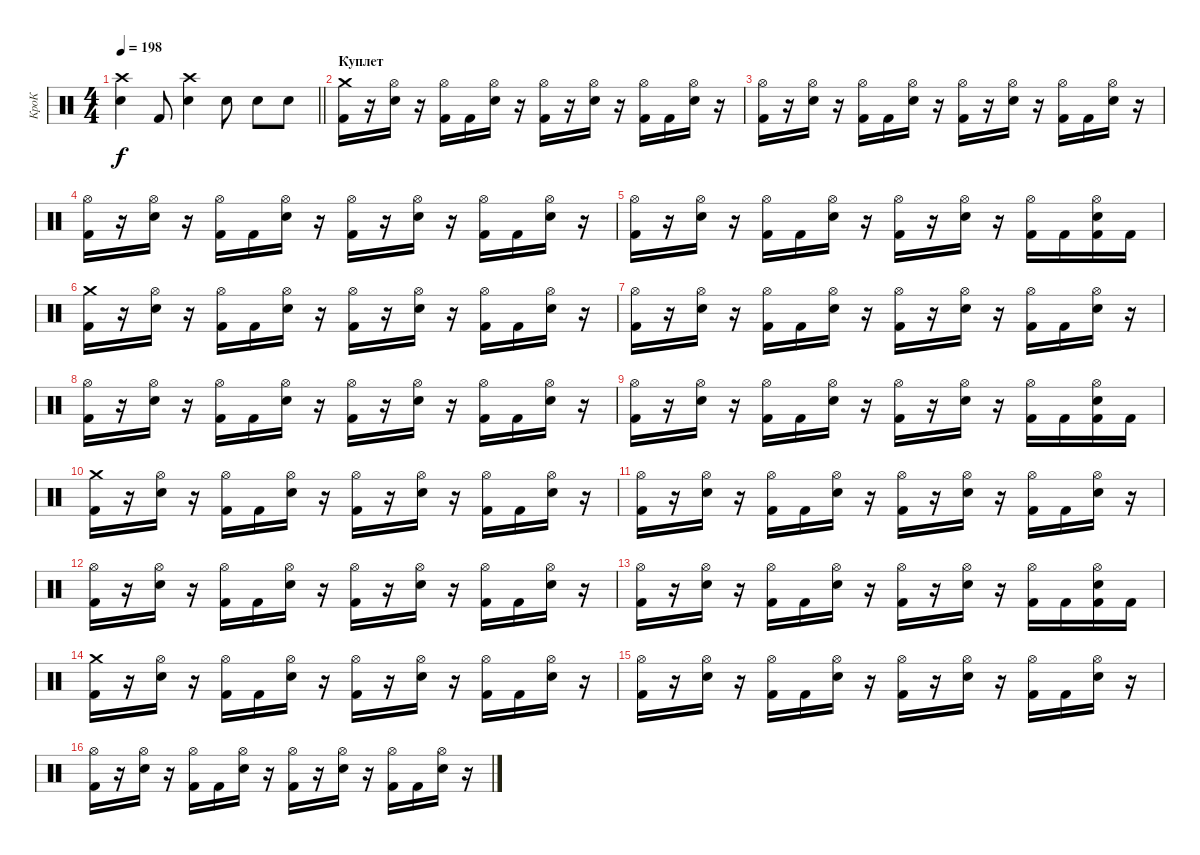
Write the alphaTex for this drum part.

\track ("КроК" "КроК") {instrument percussion}
\staff {score}
\articulation defaults
\ts (4 4)
\tempo 198
\clef neutral
\barLineRight lightlight
\ks c
("Electric Snare (hit)" "Crash high (hit)").4{dy f} "Kick (hit) 2".8 ("Electric Snare (hit)" "Crash high (hit)").4 "Electric Snare (hit)".8 "Electric Snare (hit)".8 "Electric Snare (hit)".8 |
\section ("" "Куплет")
("Crash medium (hit)" "Kick (hit) 2").16 r.16 ("Hi-Hat (open)" "Electric Snare (hit)").16 r.16 ("Hi-Hat (open)" "Kick (hit) 2").16 "Kick (hit) 2".16 ("Hi-Hat (open)" "Electric Snare (hit)").16 r.16 ("Hi-Hat (open)" "Kick (hit) 2").16 r.16 ("Hi-Hat (open)" "Electric Snare (hit)").16 r.16 ("Hi-Hat (open)" "Kick (hit) 2").16 "Kick (hit) 2".16 ("Hi-Hat (open)" "Electric Snare (hit)").16 r.16 |
("Hi-Hat (open)" "Kick (hit) 2").16 r.16 ("Hi-Hat (open)" "Electric Snare (hit)").16 r.16 ("Hi-Hat (open)" "Kick (hit) 2").16 "Kick (hit) 2".16 ("Hi-Hat (open)" "Electric Snare (hit)").16 r.16 ("Hi-Hat (open)" "Kick (hit) 2").16 r.16 ("Hi-Hat (open)" "Electric Snare (hit)").16 r.16 ("Hi-Hat (open)" "Kick (hit) 2").16 "Kick (hit) 2".16 ("Hi-Hat (open)" "Electric Snare (hit)").16 r.16 |
("Hi-Hat (open)" "Kick (hit) 2").16 r.16 ("Hi-Hat (open)" "Electric Snare (hit)").16 r.16 ("Hi-Hat (open)" "Kick (hit) 2").16 "Kick (hit) 2".16 ("Hi-Hat (open)" "Electric Snare (hit)").16 r.16 ("Hi-Hat (open)" "Kick (hit) 2").16 r.16 ("Hi-Hat (open)" "Electric Snare (hit)").16 r.16 ("Hi-Hat (open)" "Kick (hit) 2").16 "Kick (hit) 2".16 ("Hi-Hat (open)" "Electric Snare (hit)").16 r.16 |
("Hi-Hat (open)" "Kick (hit) 2").16 r.16 ("Hi-Hat (open)" "Electric Snare (hit)").16 r.16 ("Hi-Hat (open)" "Kick (hit) 2").16 "Kick (hit) 2".16 ("Hi-Hat (open)" "Electric Snare (hit)").16 r.16 ("Hi-Hat (open)" "Kick (hit) 2").16 r.16 ("Hi-Hat (open)" "Electric Snare (hit)").16 r.16 ("Hi-Hat (open)" "Kick (hit) 2").16 "Kick (hit) 2".16 ("Hi-Hat (open)" "Electric Snare (hit)" "Kick (hit) 2").16 "Kick (hit) 2".16 |
("Crash medium (hit)" "Kick (hit) 2").16 r.16 ("Hi-Hat (open)" "Electric Snare (hit)").16 r.16 ("Hi-Hat (open)" "Kick (hit) 2").16 "Kick (hit) 2".16 ("Hi-Hat (open)" "Electric Snare (hit)").16 r.16 ("Hi-Hat (open)" "Kick (hit) 2").16 r.16 ("Hi-Hat (open)" "Electric Snare (hit)").16 r.16 ("Hi-Hat (open)" "Kick (hit) 2").16 "Kick (hit) 2".16 ("Hi-Hat (open)" "Electric Snare (hit)").16 r.16 |
("Hi-Hat (open)" "Kick (hit) 2").16 r.16 ("Hi-Hat (open)" "Electric Snare (hit)").16 r.16 ("Hi-Hat (open)" "Kick (hit) 2").16 "Kick (hit) 2".16 ("Hi-Hat (open)" "Electric Snare (hit)").16 r.16 ("Hi-Hat (open)" "Kick (hit) 2").16 r.16 ("Hi-Hat (open)" "Electric Snare (hit)").16 r.16 ("Hi-Hat (open)" "Kick (hit) 2").16 "Kick (hit) 2".16 ("Hi-Hat (open)" "Electric Snare (hit)").16 r.16 |
("Hi-Hat (open)" "Kick (hit) 2").16 r.16 ("Hi-Hat (open)" "Electric Snare (hit)").16 r.16 ("Hi-Hat (open)" "Kick (hit) 2").16 "Kick (hit) 2".16 ("Hi-Hat (open)" "Electric Snare (hit)").16 r.16 ("Hi-Hat (open)" "Kick (hit) 2").16 r.16 ("Hi-Hat (open)" "Electric Snare (hit)").16 r.16 ("Hi-Hat (open)" "Kick (hit) 2").16 "Kick (hit) 2".16 ("Hi-Hat (open)" "Electric Snare (hit)").16 r.16 |
("Hi-Hat (open)" "Kick (hit) 2").16 r.16 ("Hi-Hat (open)" "Electric Snare (hit)").16 r.16 ("Hi-Hat (open)" "Kick (hit) 2").16 "Kick (hit) 2".16 ("Hi-Hat (open)" "Electric Snare (hit)").16 r.16 ("Hi-Hat (open)" "Kick (hit) 2").16 r.16 ("Hi-Hat (open)" "Electric Snare (hit)").16 r.16 ("Hi-Hat (open)" "Kick (hit) 2").16 "Kick (hit) 2".16 ("Hi-Hat (open)" "Electric Snare (hit)" "Kick (hit) 2").16 "Kick (hit) 2".16 |
("Crash medium (hit)" "Kick (hit) 2").16 r.16 ("Hi-Hat (open)" "Electric Snare (hit)").16 r.16 ("Hi-Hat (open)" "Kick (hit) 2").16 "Kick (hit) 2".16 ("Hi-Hat (open)" "Electric Snare (hit)").16 r.16 ("Hi-Hat (open)" "Kick (hit) 2").16 r.16 ("Hi-Hat (open)" "Electric Snare (hit)").16 r.16 ("Hi-Hat (open)" "Kick (hit) 2").16 "Kick (hit) 2".16 ("Hi-Hat (open)" "Electric Snare (hit)").16 r.16 |
("Hi-Hat (open)" "Kick (hit) 2").16 r.16 ("Hi-Hat (open)" "Electric Snare (hit)").16 r.16 ("Hi-Hat (open)" "Kick (hit) 2").16 "Kick (hit) 2".16 ("Hi-Hat (open)" "Electric Snare (hit)").16 r.16 ("Hi-Hat (open)" "Kick (hit) 2").16 r.16 ("Hi-Hat (open)" "Electric Snare (hit)").16 r.16 ("Hi-Hat (open)" "Kick (hit) 2").16 "Kick (hit) 2".16 ("Hi-Hat (open)" "Electric Snare (hit)").16 r.16 |
("Hi-Hat (open)" "Kick (hit) 2").16 r.16 ("Hi-Hat (open)" "Electric Snare (hit)").16 r.16 ("Hi-Hat (open)" "Kick (hit) 2").16 "Kick (hit) 2".16 ("Hi-Hat (open)" "Electric Snare (hit)").16 r.16 ("Hi-Hat (open)" "Kick (hit) 2").16 r.16 ("Hi-Hat (open)" "Electric Snare (hit)").16 r.16 ("Hi-Hat (open)" "Kick (hit) 2").16 "Kick (hit) 2".16 ("Hi-Hat (open)" "Electric Snare (hit)").16 r.16 |
("Hi-Hat (open)" "Kick (hit) 2").16 r.16 ("Hi-Hat (open)" "Electric Snare (hit)").16 r.16 ("Hi-Hat (open)" "Kick (hit) 2").16 "Kick (hit) 2".16 ("Hi-Hat (open)" "Electric Snare (hit)").16 r.16 ("Hi-Hat (open)" "Kick (hit) 2").16 r.16 ("Hi-Hat (open)" "Electric Snare (hit)").16 r.16 ("Hi-Hat (open)" "Kick (hit) 2").16 "Kick (hit) 2".16 ("Hi-Hat (open)" "Electric Snare (hit)" "Kick (hit) 2").16 "Kick (hit) 2".16 |
("Crash medium (hit)" "Kick (hit) 2").16 r.16 ("Hi-Hat (open)" "Electric Snare (hit)").16 r.16 ("Hi-Hat (open)" "Kick (hit) 2").16 "Kick (hit) 2".16 ("Hi-Hat (open)" "Electric Snare (hit)").16 r.16 ("Hi-Hat (open)" "Kick (hit) 2").16 r.16 ("Hi-Hat (open)" "Electric Snare (hit)").16 r.16 ("Hi-Hat (open)" "Kick (hit) 2").16 "Kick (hit) 2".16 ("Hi-Hat (open)" "Electric Snare (hit)").16 r.16 |
("Hi-Hat (open)" "Kick (hit) 2").16 r.16 ("Hi-Hat (open)" "Electric Snare (hit)").16 r.16 ("Hi-Hat (open)" "Kick (hit) 2").16 "Kick (hit) 2".16 ("Hi-Hat (open)" "Electric Snare (hit)").16 r.16 ("Hi-Hat (open)" "Kick (hit) 2").16 r.16 ("Hi-Hat (open)" "Electric Snare (hit)").16 r.16 ("Hi-Hat (open)" "Kick (hit) 2").16 "Kick (hit) 2".16 ("Hi-Hat (open)" "Electric Snare (hit)").16 r.16 |
("Hi-Hat (open)" "Kick (hit) 2").16 r.16 ("Hi-Hat (open)" "Electric Snare (hit)").16 r.16 ("Hi-Hat (open)" "Kick (hit) 2").16 "Kick (hit) 2".16 ("Hi-Hat (open)" "Electric Snare (hit)").16 r.16 ("Hi-Hat (open)" "Kick (hit) 2").16 r.16 ("Hi-Hat (open)" "Electric Snare (hit)").16 r.16 ("Hi-Hat (open)" "Kick (hit) 2").16 "Kick (hit) 2".16 ("Hi-Hat (open)" "Electric Snare (hit)").16 r.16
